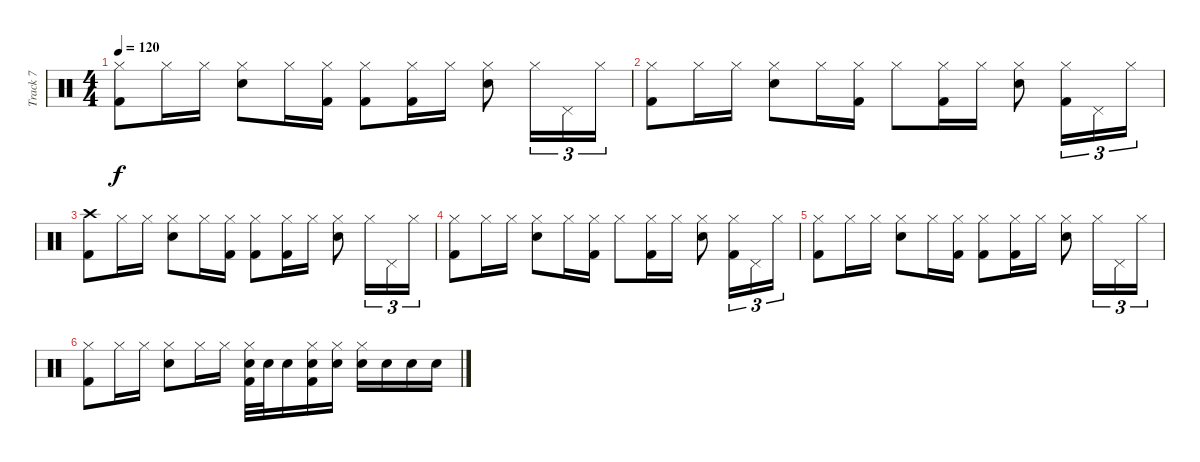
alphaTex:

\track ("Track 7" "Track 7") {instrument percussion}
\staff {score}
\articulation defaults
\ts (4 4)
\tempo 120
\clef neutral
\ks c
("Hi-Hat (closed)" "Kick (hit) 2").8{dy f} "Hi-Hat (closed)".16 "Hi-Hat (closed)".16 ("Hi-Hat (closed)" "Snare (hit) 2").8 "Hi-Hat (closed)".16 ("Hi-Hat (closed)" "Kick (hit) 2").16 ("Hi-Hat (closed)" "Kick (hit) 2").8 ("Hi-Hat (closed)" "Kick (hit) 2").16 "Hi-Hat (closed)".16 ("Hi-Hat (closed)" "Snare (hit) 2").8 "Hi-Hat (closed)".16{tu (3 2)} "Pedal Hi-Hat (hit)".16{tu (3 2)} "Hi-Hat (closed)".16{tu (3 2)} |
("Hi-Hat (closed)" "Kick (hit) 2").8 "Hi-Hat (closed)".16 "Hi-Hat (closed)".16 ("Hi-Hat (closed)" "Snare (hit) 2").8 "Hi-Hat (closed)".16 ("Hi-Hat (closed)" "Kick (hit) 2").16 "Hi-Hat (closed)".8 ("Hi-Hat (closed)" "Kick (hit) 2").16 "Hi-Hat (closed)".16 ("Hi-Hat (closed)" "Snare (hit) 2").8 ("Hi-Hat (closed)" "Kick (hit) 2").16{tu (3 2)} "Pedal Hi-Hat (hit)".16{tu (3 2)} "Hi-Hat (closed)".16{tu (3 2)} |
("Crash high (hit)" "Kick (hit) 2").8 "Hi-Hat (closed)".16 "Hi-Hat (closed)".16 ("Hi-Hat (closed)" "Snare (hit) 2").8 "Hi-Hat (closed)".16 ("Hi-Hat (closed)" "Kick (hit) 2").16 ("Hi-Hat (closed)" "Kick (hit) 2").8 ("Hi-Hat (closed)" "Kick (hit) 2").16 "Hi-Hat (closed)".16 ("Hi-Hat (closed)" "Snare (hit) 2").8 "Hi-Hat (closed)".16{tu (3 2)} "Pedal Hi-Hat (hit)".16{tu (3 2)} "Hi-Hat (closed)".16{tu (3 2)} |
("Hi-Hat (closed)" "Kick (hit) 2").8 "Hi-Hat (closed)".16 "Hi-Hat (closed)".16 ("Hi-Hat (closed)" "Snare (hit) 2").8 "Hi-Hat (closed)".16 ("Hi-Hat (closed)" "Kick (hit) 2").16 "Hi-Hat (closed)".8 ("Hi-Hat (closed)" "Kick (hit) 2").16 "Hi-Hat (closed)".16 ("Hi-Hat (closed)" "Snare (hit) 2").8 ("Hi-Hat (closed)" "Kick (hit) 2").16{tu (3 2)} "Pedal Hi-Hat (hit)".16{tu (3 2)} "Hi-Hat (closed)".16{tu (3 2)} |
("Hi-Hat (closed)" "Kick (hit) 2").8 "Hi-Hat (closed)".16 "Hi-Hat (closed)".16 ("Hi-Hat (closed)" "Snare (hit) 2").8 "Hi-Hat (closed)".16 ("Hi-Hat (closed)" "Kick (hit) 2").16 ("Hi-Hat (closed)" "Kick (hit) 2").8 ("Hi-Hat (closed)" "Kick (hit) 2").16 "Hi-Hat (closed)".16 ("Hi-Hat (closed)" "Snare (hit) 2").8 "Hi-Hat (closed)".16{tu (3 2)} "Pedal Hi-Hat (hit)".16{tu (3 2)} "Hi-Hat (closed)".16{tu (3 2)} |
("Hi-Hat (closed)" "Kick (hit) 2").8 "Hi-Hat (closed)".16 "Hi-Hat (closed)".16 ("Hi-Hat (closed)" "Snare (hit) 2").8 "Hi-Hat (closed)".16 "Hi-Hat (closed)".16 ("Hi-Hat (closed)" "Snare (hit) 2" "Kick (hit) 2").32 "Snare (hit) 2".32 "Snare (hit) 2".16 ("Hi-Hat (closed)" "Snare (hit) 2" "Kick (hit) 2").16 ("Hi-Hat (closed)" "Snare (hit) 2").16 ("Hi-Hat (closed)" "Snare (hit) 2").16 "Snare (hit) 2".16 "Snare (hit) 2".16 "Snare (hit) 2".16
